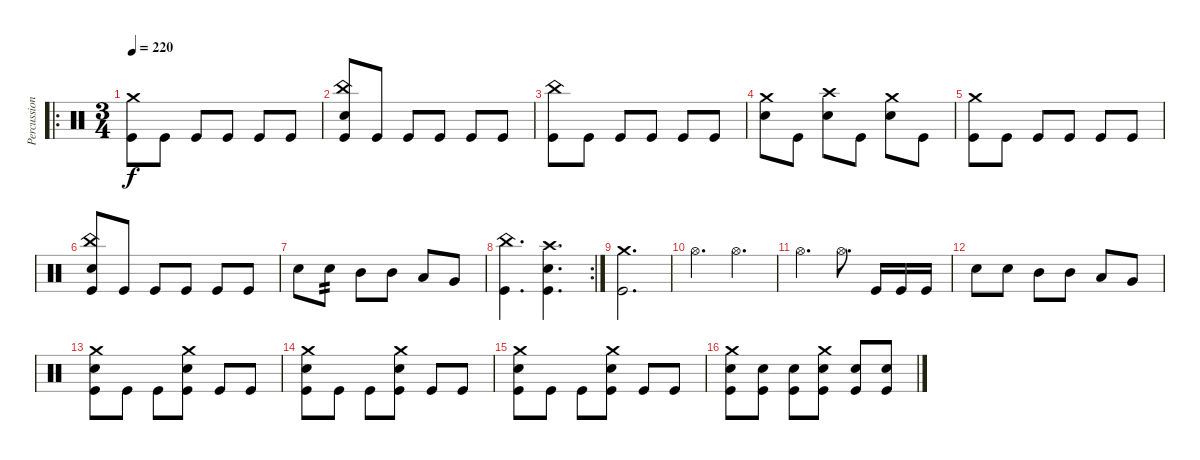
\track ("Percussion" "Percussion") {instrument percussion}
\staff {score}
\articulation defaults
\ro
\ts (3 4)
\tempo 220
\clef neutral
\ks c
("Crash medium (hit)" "Kick (hit)").8{dy f} "Kick (hit)".8 "Kick (hit)".8 "Kick (hit)".8 "Kick (hit)".8 "Kick (hit)".8 |
("China (hit)" "Electric Snare (hit)" "Kick (hit)").8 "Kick (hit)".8 "Kick (hit)".8 "Kick (hit)".8 "Kick (hit)".8 "Kick (hit)".8 |
("China (hit)" "Kick (hit)").8 "Kick (hit)".8 "Kick (hit)".8 "Kick (hit)".8 "Kick (hit)".8 "Kick (hit)".8 |
("Crash medium (hit)" "Electric Snare (hit)").8 "Kick (hit)".8 ("Crash high (hit)" "Electric Snare (hit)").8 "Kick (hit)".8 ("Crash medium (hit)" "Electric Snare (hit)").8 "Kick (hit)".8 |
("Crash medium (hit)" "Kick (hit)").8 "Kick (hit)".8 "Kick (hit)".8 "Kick (hit)".8 "Kick (hit)".8 "Kick (hit)".8 |
("China (hit)" "Electric Snare (hit)" "Kick (hit)").8 "Kick (hit)".8 "Kick (hit)".8 "Kick (hit)".8 "Kick (hit)".8 "Kick (hit)".8 |
"Electric Snare (hit)".8 "Electric Snare (hit)".8{tp 2} "Mid Tom (hit)".8 "Mid Tom (hit)".8 "Low Tom (hit)".8 "Very Low Tom (hit)".8 |
\rc 2
("China (hit)" "Kick (hit)").4{d} ("Crash high (hit)" "Electric Snare (hit)" "Kick (hit)").4{d} |
("Crash medium (hit)" "Kick (hit)").2{d} |
"Hi-Hat (open)".4{d} "Hi-Hat (open)".4{d} |
"Hi-Hat (open)".4{d} "Hi-Hat (open)".8{d} "Kick (hit)".16 "Kick (hit)".16 "Kick (hit)".16 |
"Electric Snare (hit)".8 "Electric Snare (hit)".8 "Mid Tom (hit)".8 "Mid Tom (hit)".8 "Low Tom (hit)".8 "Very Low Tom (hit)".8 |
("Crash medium (hit)" "Electric Snare (hit)" "Kick (hit)").8 "Kick (hit)".8 "Kick (hit)".8 ("Crash medium (hit)" "Electric Snare (hit)" "Kick (hit)").8 "Kick (hit)".8 "Kick (hit)".8 |
("Crash medium (hit)" "Electric Snare (hit)" "Kick (hit)").8 "Kick (hit)".8 "Kick (hit)".8 ("Crash medium (hit)" "Electric Snare (hit)" "Kick (hit)").8 "Kick (hit)".8 "Kick (hit)".8 |
("Crash medium (hit)" "Electric Snare (hit)" "Kick (hit)").8 "Kick (hit)".8 "Kick (hit)".8 ("Crash medium (hit)" "Electric Snare (hit)" "Kick (hit)").8 "Kick (hit)".8 "Kick (hit)".8 |
("Crash medium (hit)" "Electric Snare (hit)" "Kick (hit)").8 ("Electric Snare (hit)" "Kick (hit)").8 ("Electric Snare (hit)" "Kick (hit)").8 ("Crash medium (hit)" "Electric Snare (hit)" "Kick (hit)").8 ("Electric Snare (hit)" "Kick (hit)").8 ("Electric Snare (hit)" "Kick (hit)").8
